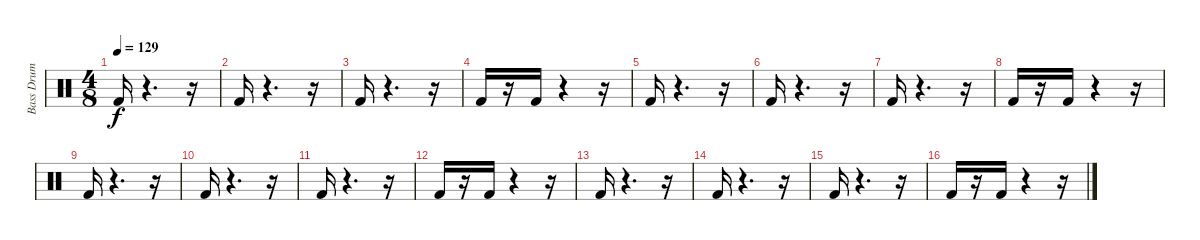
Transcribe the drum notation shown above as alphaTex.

\track ("Bass Drum" "Bass Drum") {instrument percussion}
\staff {score}
\articulation defaults
\ts (4 8)
\tempo 129
\clef neutral
\ks c "Kick (hit) 2".16{dy f}
r.4{d} r.16 |
"Kick (hit) 2".16 r.4{d} r.16 |
"Kick (hit) 2".16 r.4{d} r.16 |
"Kick (hit) 2".16 r.16 "Kick (hit) 2".16 r.4 r.16 |
"Kick (hit) 2".16 r.4{d} r.16 |
"Kick (hit) 2".16 r.4{d} r.16 |
"Kick (hit) 2".16 r.4{d} r.16 |
"Kick (hit) 2".16 r.16 "Kick (hit) 2".16 r.4 r.16 |
"Kick (hit) 2".16 r.4{d} r.16 |
"Kick (hit) 2".16 r.4{d} r.16 |
"Kick (hit) 2".16 r.4{d} r.16 |
"Kick (hit) 2".16 r.16 "Kick (hit) 2".16 r.4 r.16 |
"Kick (hit) 2".16 r.4{d} r.16 |
"Kick (hit) 2".16 r.4{d} r.16 |
"Kick (hit) 2".16 r.4{d} r.16 |
"Kick (hit) 2".16 r.16 "Kick (hit) 2".16 r.4 r.16
